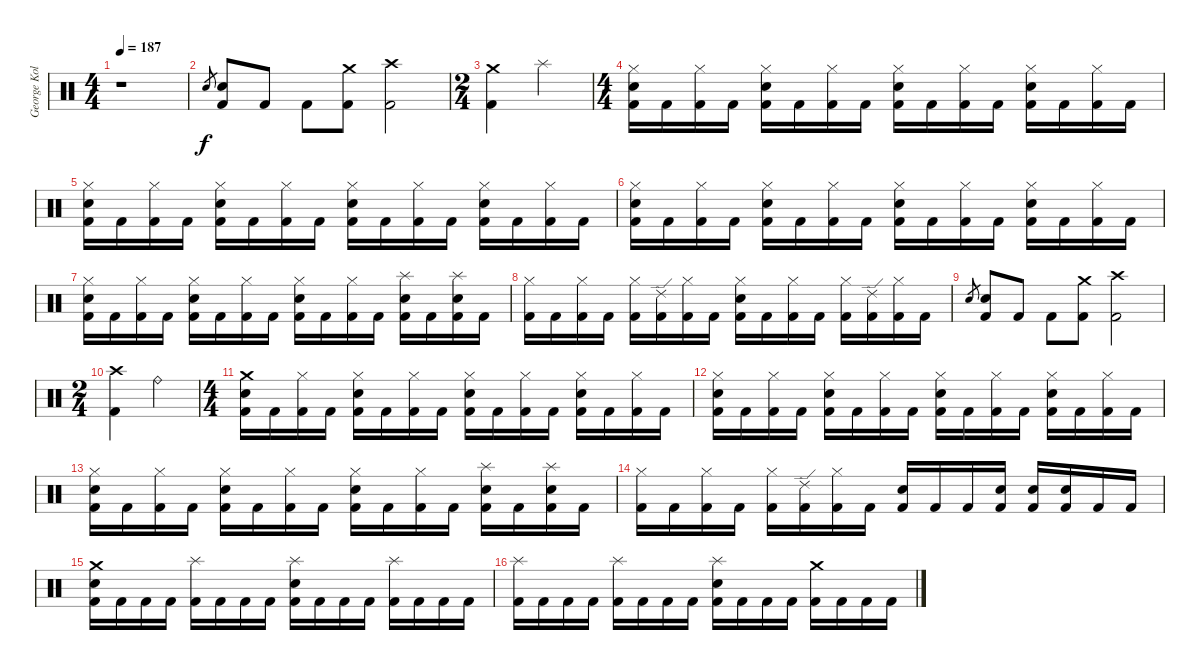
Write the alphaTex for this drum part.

\track ("George Kollias" "George Kol") {instrument percussion}
\staff {score}
\articulation defaults
\ts (4 4)
\tempo 187
\clef neutral
\ks c
r.1{dy f} |
"Electric Snare (hit)".8{gr} ("Electric Snare (hit)" "Kick (hit) 2").8 "Kick (hit) 2".8 "Kick (hit) 2".8 ("Crash medium (hit)" "Kick (hit) 2").8 ("Crash high (hit)" "Kick (hit) 2").2 |
\ts (2 4)
("Crash medium (hit)" "Kick (hit) 2").4 "Splash (hit)".4 |
\ts (4 4)
("Hi-Hat (closed)" "Electric Snare (hit)" "Kick (hit) 2").16 "Kick (hit) 2".16 ("Hi-Hat (closed)" "Kick (hit) 2").16 "Kick (hit) 2".16 ("Hi-Hat (closed)" "Electric Snare (hit)" "Kick (hit) 2").16 "Kick (hit) 2".16 ("Hi-Hat (closed)" "Kick (hit) 2").16 "Kick (hit) 2".16 ("Hi-Hat (closed)" "Electric Snare (hit)" "Kick (hit) 2").16 "Kick (hit) 2".16 ("Hi-Hat (closed)" "Kick (hit) 2").16 "Kick (hit) 2".16 ("Hi-Hat (closed)" "Electric Snare (hit)" "Kick (hit) 2").16 "Kick (hit) 2".16 ("Hi-Hat (closed)" "Kick (hit) 2").16 "Kick (hit) 2".16 |
("Hi-Hat (closed)" "Electric Snare (hit)" "Kick (hit) 2").16 "Kick (hit) 2".16 ("Hi-Hat (closed)" "Kick (hit) 2").16 "Kick (hit) 2".16 ("Hi-Hat (closed)" "Electric Snare (hit)" "Kick (hit) 2").16 "Kick (hit) 2".16 ("Hi-Hat (closed)" "Kick (hit) 2").16 "Kick (hit) 2".16 ("Hi-Hat (closed)" "Electric Snare (hit)" "Kick (hit) 2").16 "Kick (hit) 2".16 ("Hi-Hat (closed)" "Kick (hit) 2").16 "Kick (hit) 2".16 ("Hi-Hat (closed)" "Electric Snare (hit)" "Kick (hit) 2").16 "Kick (hit) 2".16 ("Hi-Hat (closed)" "Kick (hit) 2").16 "Kick (hit) 2".16 |
("Hi-Hat (closed)" "Electric Snare (hit)" "Kick (hit) 2").16 "Kick (hit) 2".16 ("Hi-Hat (closed)" "Kick (hit) 2").16 "Kick (hit) 2".16 ("Hi-Hat (closed)" "Electric Snare (hit)" "Kick (hit) 2").16 "Kick (hit) 2".16 ("Hi-Hat (closed)" "Kick (hit) 2").16 "Kick (hit) 2".16 ("Hi-Hat (closed)" "Electric Snare (hit)" "Kick (hit) 2").16 "Kick (hit) 2".16 ("Hi-Hat (closed)" "Kick (hit) 2").16 "Kick (hit) 2".16 ("Hi-Hat (closed)" "Electric Snare (hit)" "Kick (hit) 2").16 "Kick (hit) 2".16 ("Hi-Hat (closed)" "Kick (hit) 2").16 "Kick (hit) 2".16 |
("Hi-Hat (closed)" "Electric Snare (hit)" "Kick (hit) 2").16 "Kick (hit) 2".16 ("Hi-Hat (closed)" "Kick (hit) 2").16 "Kick (hit) 2".16 ("Hi-Hat (closed)" "Electric Snare (hit)" "Kick (hit) 2").16 "Kick (hit) 2".16 ("Hi-Hat (closed)" "Kick (hit) 2").16 "Kick (hit) 2".16 ("Hi-Hat (closed)" "Electric Snare (hit)" "Kick (hit) 2").16 "Kick (hit) 2".16 ("Hi-Hat (closed)" "Kick (hit) 2").16 "Kick (hit) 2".16 ("Splash (hit)" "Electric Snare (hit)" "Kick (hit) 2").16 "Kick (hit) 2".16 ("Splash (hit)" "Electric Snare (hit)" "Kick (hit) 2").16 "Kick (hit) 2".16 |
("Hi-Hat (closed)" "Kick (hit) 2").16 "Kick (hit) 2".16 ("Hi-Hat (closed)" "Kick (hit) 2").16 "Kick (hit) 2".16 ("Hi-Hat (closed)" "Kick (hit) 2").16 ("Ride (edge) 2" "Kick (hit) 2").16 ("Hi-Hat (closed)" "Kick (hit) 2").16 "Kick (hit) 2".16 ("Hi-Hat (closed)" "Electric Snare (hit)" "Kick (hit) 2").16 "Kick (hit) 2".16 ("Hi-Hat (closed)" "Kick (hit) 2").16 "Kick (hit) 2".16 ("Hi-Hat (closed)" "Kick (hit) 2").16 ("Ride (edge) 2" "Kick (hit) 2").16 ("Hi-Hat (closed)" "Kick (hit) 2").16 "Kick (hit) 2".16 |
"Electric Snare (hit)".8{gr} ("Electric Snare (hit)" "Kick (hit) 2").8 "Kick (hit) 2".8 "Kick (hit) 2".8 ("Crash medium (hit)" "Kick (hit) 2").8 ("Crash high (hit)" "Kick (hit) 2").2 |
\ts (2 4)
("Crash high (hit)" "Kick (hit) 2").4 "Ride (bell)".4 |
\ts (4 4)
("Crash medium (hit)" "Electric Snare (hit)" "Kick (hit) 2").16 "Kick (hit) 2".16 ("Hi-Hat (closed)" "Kick (hit) 2").16 "Kick (hit) 2".16 ("Hi-Hat (closed)" "Electric Snare (hit)" "Kick (hit) 2").16 "Kick (hit) 2".16 ("Hi-Hat (closed)" "Kick (hit) 2").16 "Kick (hit) 2".16 ("Hi-Hat (closed)" "Electric Snare (hit)" "Kick (hit) 2").16 "Kick (hit) 2".16 ("Hi-Hat (closed)" "Kick (hit) 2").16 "Kick (hit) 2".16 ("Hi-Hat (closed)" "Electric Snare (hit)" "Kick (hit) 2").16 "Kick (hit) 2".16 ("Hi-Hat (closed)" "Kick (hit) 2").16 "Kick (hit) 2".16 |
("Hi-Hat (closed)" "Electric Snare (hit)" "Kick (hit) 2").16 "Kick (hit) 2".16 ("Hi-Hat (closed)" "Kick (hit) 2").16 "Kick (hit) 2".16 ("Hi-Hat (closed)" "Electric Snare (hit)" "Kick (hit) 2").16 "Kick (hit) 2".16 ("Hi-Hat (closed)" "Kick (hit) 2").16 "Kick (hit) 2".16 ("Hi-Hat (closed)" "Electric Snare (hit)" "Kick (hit) 2").16 "Kick (hit) 2".16 ("Hi-Hat (closed)" "Kick (hit) 2").16 "Kick (hit) 2".16 ("Hi-Hat (closed)" "Electric Snare (hit)" "Kick (hit) 2").16 "Kick (hit) 2".16 ("Hi-Hat (closed)" "Kick (hit) 2").16 "Kick (hit) 2".16 |
("Hi-Hat (closed)" "Electric Snare (hit)" "Kick (hit) 2").16 "Kick (hit) 2".16 ("Hi-Hat (closed)" "Kick (hit) 2").16 "Kick (hit) 2".16 ("Hi-Hat (closed)" "Electric Snare (hit)" "Kick (hit) 2").16 "Kick (hit) 2".16 ("Hi-Hat (closed)" "Kick (hit) 2").16 "Kick (hit) 2".16 ("Hi-Hat (closed)" "Electric Snare (hit)" "Kick (hit) 2").16 "Kick (hit) 2".16 ("Hi-Hat (closed)" "Kick (hit) 2").16 "Kick (hit) 2".16 ("Splash (hit)" "Electric Snare (hit)" "Kick (hit) 2").16 "Kick (hit) 2".16 ("Splash (hit)" "Electric Snare (hit)" "Kick (hit) 2").16 "Kick (hit) 2".16 |
("Hi-Hat (closed)" "Kick (hit) 2").16 "Kick (hit) 2".16 ("Hi-Hat (closed)" "Kick (hit) 2").16 "Kick (hit) 2".16 ("Hi-Hat (closed)" "Kick (hit) 2").16 ("Ride (edge) 2" "Kick (hit) 2").16 ("Hi-Hat (closed)" "Kick (hit) 2").16 "Kick (hit) 2".16 ("Electric Snare (hit)" "Kick (hit) 2").16 "Kick (hit) 2".16 "Kick (hit) 2".16 ("Electric Snare (hit)" "Kick (hit) 2").16 ("Electric Snare (hit)" "Kick (hit) 2").16 ("Electric Snare (hit)" "Kick (hit) 2").16 "Kick (hit) 2".16 "Kick (hit) 2".16 |
("Crash medium (hit)" "Electric Snare (hit)" "Kick (hit) 2").16 "Kick (hit) 2".16 "Kick (hit) 2".16 "Kick (hit) 2".16 ("Splash (hit)" "Kick (hit) 2").16 "Kick (hit) 2".16 "Kick (hit) 2".16 "Kick (hit) 2".16 ("Splash (hit)" "Electric Snare (hit)" "Kick (hit) 2").16 "Kick (hit) 2".16 "Kick (hit) 2".16 "Kick (hit) 2".16 ("Splash (hit)" "Kick (hit) 2").16 "Kick (hit) 2".16 "Kick (hit) 2".16 "Kick (hit) 2".16 |
("Splash (hit)" "Kick (hit) 2").16 "Kick (hit) 2".16 "Kick (hit) 2".16 "Kick (hit) 2".16 ("Splash (hit)" "Kick (hit) 2").16 "Kick (hit) 2".16 "Kick (hit) 2".16 "Kick (hit) 2".16 ("Splash (hit)" "Electric Snare (hit)" "Kick (hit) 2").16 "Kick (hit) 2".16 "Kick (hit) 2".16 "Kick (hit) 2".16 ("Crash medium (hit)" "Kick (hit) 2").16 "Kick (hit) 2".16 "Kick (hit) 2".16 "Kick (hit) 2".16
